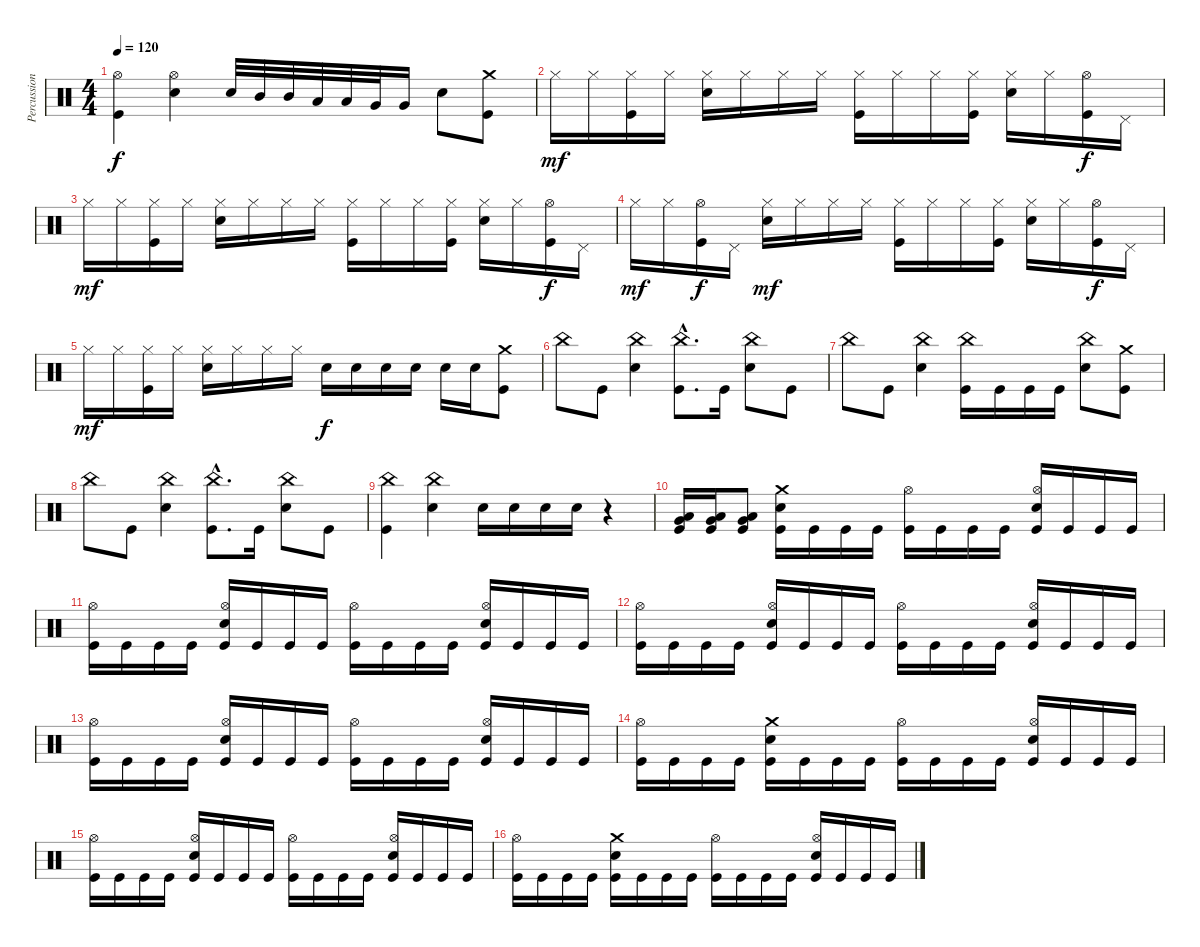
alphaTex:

\track ("Percussions" "Percussion") {instrument percussion}
\staff {score}
\articulation defaults
\ts (4 4)
\tempo 120
\clef neutral
\ks c
("Kick (hit)" "Hi-Hat (open)").4{dy f} ("Electric Snare (hit)" "Hi-Hat (open)").4 "Electric Snare (hit)".32 "Mid Tom (hit)".32 "Mid Tom (hit)".32 "Low Tom (hit)".32 "Low Tom (hit)".32 "Very Low Tom (hit)".32 "Very Low Tom (hit)".16 "Electric Snare (hit)".8 ("Kick (hit)" "Crash medium (hit)").8 |
"Hi-Hat (closed)".16{dy mf} "Hi-Hat (closed)".16 ("Kick (hit)" "Hi-Hat (closed)").16 "Hi-Hat (closed)".16 ("Electric Snare (hit)" "Hi-Hat (closed)").16 "Hi-Hat (closed)".16 "Hi-Hat (closed)".16 "Hi-Hat (closed)".16 ("Kick (hit)" "Hi-Hat (closed)").16 "Hi-Hat (closed)".16 "Hi-Hat (closed)".16 ("Kick (hit)" "Hi-Hat (closed)").16 ("Electric Snare (hit)" "Hi-Hat (closed)").16 "Hi-Hat (closed)".16 ("Kick (hit)" "Hi-Hat (open)").16{dy f} "Pedal Hi-Hat (hit)".16 |
"Hi-Hat (closed)".16{dy mf} "Hi-Hat (closed)".16 ("Kick (hit)" "Hi-Hat (closed)").16 "Hi-Hat (closed)".16 ("Electric Snare (hit)" "Hi-Hat (closed)").16 "Hi-Hat (closed)".16 "Hi-Hat (closed)".16 "Hi-Hat (closed)".16 ("Kick (hit)" "Hi-Hat (closed)").16 "Hi-Hat (closed)".16 "Hi-Hat (closed)".16 ("Kick (hit)" "Hi-Hat (closed)").16 ("Electric Snare (hit)" "Hi-Hat (closed)").16 "Hi-Hat (closed)".16 ("Kick (hit)" "Hi-Hat (open)").16{dy f} "Pedal Hi-Hat (hit)".16 |
"Hi-Hat (closed)".16{dy mf} "Hi-Hat (closed)".16 ("Kick (hit)" "Hi-Hat (open)").16{dy f} "Pedal Hi-Hat (hit)".16 ("Electric Snare (hit)" "Hi-Hat (closed)").16{dy mf} "Hi-Hat (closed)".16 "Hi-Hat (closed)".16 "Hi-Hat (closed)".16 ("Kick (hit)" "Hi-Hat (closed)").16 "Hi-Hat (closed)".16 "Hi-Hat (closed)".16 ("Kick (hit)" "Hi-Hat (closed)").16 ("Electric Snare (hit)" "Hi-Hat (closed)").16 "Hi-Hat (closed)".16 ("Kick (hit)" "Hi-Hat (open)").16{dy f} "Pedal Hi-Hat (hit)".16 |
"Hi-Hat (closed)".16{dy mf} "Hi-Hat (closed)".16 ("Kick (hit)" "Hi-Hat (closed)").16 "Hi-Hat (closed)".16 ("Electric Snare (hit)" "Hi-Hat (closed)").16 "Hi-Hat (closed)".16 "Hi-Hat (closed)".16 "Hi-Hat (closed)".16 "Electric Snare (hit)".16{dy f} "Electric Snare (hit)".16 "Electric Snare (hit)".16 "Electric Snare (hit)".16 "Electric Snare (hit)".16 "Electric Snare (hit)".16 ("Kick (hit)" "Crash medium (hit)").8 |
"China (hit)".8 "Kick (hit)".8 ("Electric Snare (hit)" "China (hit)").4 ("Kick (hit)"{hac} "China (hit)"{hac}).8{d} "Kick (hit)".16 ("Electric Snare (hit)" "China (hit)").8 "Kick (hit)".8 |
"China (hit)".8 "Kick (hit)".8 ("Electric Snare (hit)" "China (hit)").4 ("Kick (hit)" "China (hit)").16 "Kick (hit)".16 "Kick (hit)".16 "Kick (hit)".16 ("Electric Snare (hit)" "China (hit)").8 ("Kick (hit)" "Crash medium (hit)").8 |
"China (hit)".8 "Kick (hit)".8 ("Electric Snare (hit)" "China (hit)").4 ("Kick (hit)"{hac} "China (hit)"{hac}).8{d} "Kick (hit)".16 ("Electric Snare (hit)" "China (hit)").8 "Kick (hit)".8 |
("Kick (hit)" "China (hit)").4 ("Electric Snare (hit)" "China (hit)").4 "Electric Snare (hit)".16 "Electric Snare (hit)".16 "Electric Snare (hit)".16 "Electric Snare (hit)".16 r.4 |
("Kick (hit)" "Very Low Tom (hit)" "Low Floor Tom (hit)").16 ("Kick (hit)" "Very Low Tom (hit)" "Low Floor Tom (hit)").16 ("Kick (hit)" "Very Low Tom (hit)" "Low Floor Tom (hit)").8 ("Kick (hit)" "Electric Snare (hit)" "Crash medium (hit)").16 "Kick (hit)".16 "Kick (hit)".16 "Kick (hit)".16 ("Kick (hit)" "Hi-Hat (open)").16 "Kick (hit)".16 "Kick (hit)".16 "Kick (hit)".16 ("Kick (hit)" "Electric Snare (hit)" "Hi-Hat (open)").16 "Kick (hit)".16 "Kick (hit)".16 "Kick (hit)".16 |
("Kick (hit)" "Hi-Hat (open)").16 "Kick (hit)".16 "Kick (hit)".16 "Kick (hit)".16 ("Kick (hit)" "Electric Snare (hit)" "Hi-Hat (open)").16 "Kick (hit)".16 "Kick (hit)".16 "Kick (hit)".16 ("Kick (hit)" "Hi-Hat (open)").16 "Kick (hit)".16 "Kick (hit)".16 "Kick (hit)".16 ("Kick (hit)" "Electric Snare (hit)" "Hi-Hat (open)").16 "Kick (hit)".16 "Kick (hit)".16 "Kick (hit)".16 |
("Kick (hit)" "Hi-Hat (open)").16 "Kick (hit)".16 "Kick (hit)".16 "Kick (hit)".16 ("Kick (hit)" "Electric Snare (hit)" "Hi-Hat (open)").16 "Kick (hit)".16 "Kick (hit)".16 "Kick (hit)".16 ("Kick (hit)" "Hi-Hat (open)").16 "Kick (hit)".16 "Kick (hit)".16 "Kick (hit)".16 ("Kick (hit)" "Electric Snare (hit)" "Hi-Hat (open)").16 "Kick (hit)".16 "Kick (hit)".16 "Kick (hit)".16 |
("Kick (hit)" "Hi-Hat (open)").16 "Kick (hit)".16 "Kick (hit)".16 "Kick (hit)".16 ("Kick (hit)" "Electric Snare (hit)" "Hi-Hat (open)").16 "Kick (hit)".16 "Kick (hit)".16 "Kick (hit)".16 ("Kick (hit)" "Hi-Hat (open)").16 "Kick (hit)".16 "Kick (hit)".16 "Kick (hit)".16 ("Kick (hit)" "Electric Snare (hit)" "Hi-Hat (open)").16 "Kick (hit)".16 "Kick (hit)".16 "Kick (hit)".16 |
("Kick (hit)" "Hi-Hat (open)").16 "Kick (hit)".16 "Kick (hit)".16 "Kick (hit)".16 ("Kick (hit)" "Electric Snare (hit)" "Crash medium (hit)").16 "Kick (hit)".16 "Kick (hit)".16 "Kick (hit)".16 ("Kick (hit)" "Hi-Hat (open)").16 "Kick (hit)".16 "Kick (hit)".16 "Kick (hit)".16 ("Kick (hit)" "Electric Snare (hit)" "Hi-Hat (open)").16 "Kick (hit)".16 "Kick (hit)".16 "Kick (hit)".16 |
("Kick (hit)" "Hi-Hat (open)").16 "Kick (hit)".16 "Kick (hit)".16 "Kick (hit)".16 ("Kick (hit)" "Electric Snare (hit)" "Hi-Hat (open)").16 "Kick (hit)".16 "Kick (hit)".16 "Kick (hit)".16 ("Kick (hit)" "Hi-Hat (open)").16 "Kick (hit)".16 "Kick (hit)".16 "Kick (hit)".16 ("Kick (hit)" "Electric Snare (hit)" "Hi-Hat (open)").16 "Kick (hit)".16 "Kick (hit)".16 "Kick (hit)".16 |
("Kick (hit)" "Hi-Hat (open)").16 "Kick (hit)".16 "Kick (hit)".16 "Kick (hit)".16 ("Kick (hit)" "Electric Snare (hit)" "Crash medium (hit)").16 "Kick (hit)".16 "Kick (hit)".16 "Kick (hit)".16 ("Kick (hit)" "Hi-Hat (open)").16 "Kick (hit)".16 "Kick (hit)".16 "Kick (hit)".16 ("Kick (hit)" "Electric Snare (hit)" "Hi-Hat (open)").16 "Kick (hit)".16 "Kick (hit)".16 "Kick (hit)".16
